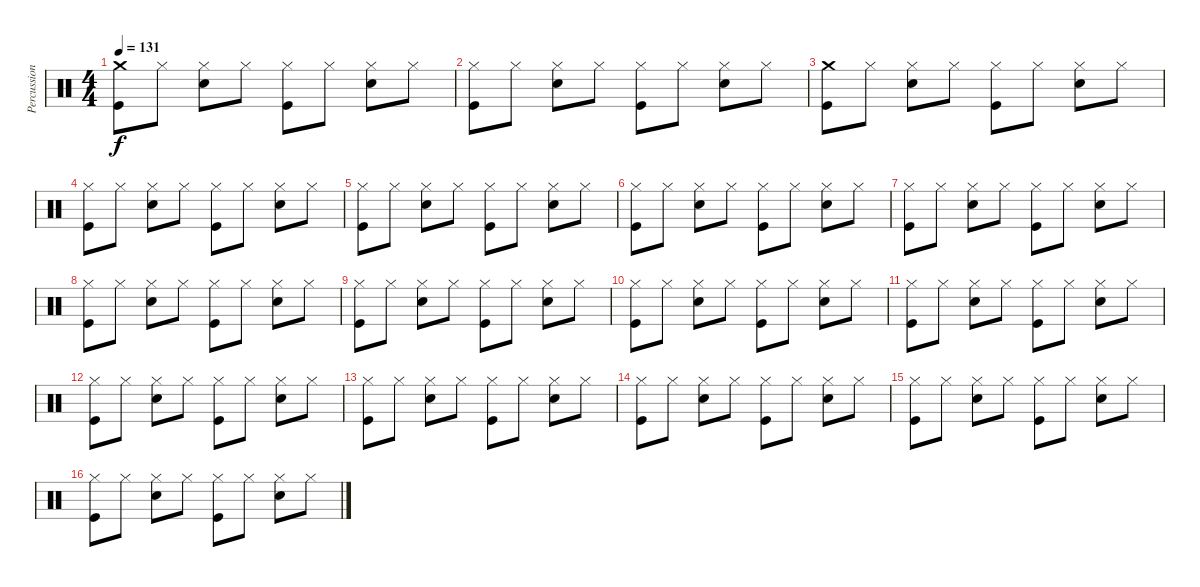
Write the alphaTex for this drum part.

\track ("Percussions" "Percussion") {instrument percussion}
\staff {score}
\articulation defaults
\ts (4 4)
\tempo 131
\clef neutral
\ks c
("Crash medium (hit)" "Kick (hit)").8{dy f} "Hi-Hat (closed)".8 ("Hi-Hat (closed)" "Snare (hit) 2").8 "Hi-Hat (closed)".8 ("Hi-Hat (closed)" "Kick (hit)").8 "Hi-Hat (closed)".8 ("Hi-Hat (closed)" "Snare (hit) 2").8 "Hi-Hat (closed)".8 |
("Hi-Hat (closed)" "Kick (hit)").8 "Hi-Hat (closed)".8 ("Hi-Hat (closed)" "Snare (hit) 2").8 "Hi-Hat (closed)".8 ("Hi-Hat (closed)" "Kick (hit)").8 "Hi-Hat (closed)".8 ("Hi-Hat (closed)" "Snare (hit) 2").8 "Hi-Hat (closed)".8 |
("Crash medium (hit)" "Kick (hit)").8 "Hi-Hat (closed)".8 ("Hi-Hat (closed)" "Snare (hit) 2").8 "Hi-Hat (closed)".8 ("Hi-Hat (closed)" "Kick (hit)").8 "Hi-Hat (closed)".8 ("Hi-Hat (closed)" "Snare (hit) 2").8 "Hi-Hat (closed)".8 |
("Hi-Hat (closed)" "Kick (hit)").8 "Hi-Hat (closed)".8 ("Hi-Hat (closed)" "Snare (hit) 2").8 "Hi-Hat (closed)".8 ("Hi-Hat (closed)" "Kick (hit)").8 "Hi-Hat (closed)".8 ("Hi-Hat (closed)" "Snare (hit) 2").8 "Hi-Hat (closed)".8 |
("Hi-Hat (closed)" "Kick (hit)").8 "Hi-Hat (closed)".8 ("Hi-Hat (closed)" "Snare (hit) 2").8 "Hi-Hat (closed)".8 ("Hi-Hat (closed)" "Kick (hit)").8 "Hi-Hat (closed)".8 ("Hi-Hat (closed)" "Snare (hit) 2").8 "Hi-Hat (closed)".8 |
("Hi-Hat (closed)" "Kick (hit)").8 "Hi-Hat (closed)".8 ("Hi-Hat (closed)" "Snare (hit) 2").8 "Hi-Hat (closed)".8 ("Hi-Hat (closed)" "Kick (hit)").8 "Hi-Hat (closed)".8 ("Hi-Hat (closed)" "Snare (hit) 2").8 "Hi-Hat (closed)".8 |
("Hi-Hat (closed)" "Kick (hit)").8 "Hi-Hat (closed)".8 ("Hi-Hat (closed)" "Snare (hit) 2").8 "Hi-Hat (closed)".8 ("Hi-Hat (closed)" "Kick (hit)").8 "Hi-Hat (closed)".8 ("Hi-Hat (closed)" "Snare (hit) 2").8 "Hi-Hat (closed)".8 |
("Hi-Hat (closed)" "Kick (hit)").8 "Hi-Hat (closed)".8 ("Hi-Hat (closed)" "Snare (hit) 2").8 "Hi-Hat (closed)".8 ("Hi-Hat (closed)" "Kick (hit)").8 "Hi-Hat (closed)".8 ("Hi-Hat (closed)" "Snare (hit) 2").8 "Hi-Hat (closed)".8 |
("Hi-Hat (closed)" "Kick (hit)").8 "Hi-Hat (closed)".8 ("Hi-Hat (closed)" "Snare (hit) 2").8 "Hi-Hat (closed)".8 ("Hi-Hat (closed)" "Kick (hit)").8 "Hi-Hat (closed)".8 ("Hi-Hat (closed)" "Snare (hit) 2").8 "Hi-Hat (closed)".8 |
("Hi-Hat (closed)" "Kick (hit)").8 "Hi-Hat (closed)".8 ("Hi-Hat (closed)" "Snare (hit) 2").8 "Hi-Hat (closed)".8 ("Hi-Hat (closed)" "Kick (hit)").8 "Hi-Hat (closed)".8 ("Hi-Hat (closed)" "Snare (hit) 2").8 "Hi-Hat (closed)".8 |
("Hi-Hat (closed)" "Kick (hit)").8 "Hi-Hat (closed)".8 ("Hi-Hat (closed)" "Snare (hit) 2").8 "Hi-Hat (closed)".8 ("Hi-Hat (closed)" "Kick (hit)").8 "Hi-Hat (closed)".8 ("Hi-Hat (closed)" "Snare (hit) 2").8 "Hi-Hat (closed)".8 |
("Hi-Hat (closed)" "Kick (hit)").8 "Hi-Hat (closed)".8 ("Hi-Hat (closed)" "Snare (hit) 2").8 "Hi-Hat (closed)".8 ("Hi-Hat (closed)" "Kick (hit)").8 "Hi-Hat (closed)".8 ("Hi-Hat (closed)" "Snare (hit) 2").8 "Hi-Hat (closed)".8 |
("Hi-Hat (closed)" "Kick (hit)").8 "Hi-Hat (closed)".8 ("Hi-Hat (closed)" "Snare (hit) 2").8 "Hi-Hat (closed)".8 ("Hi-Hat (closed)" "Kick (hit)").8 "Hi-Hat (closed)".8 ("Hi-Hat (closed)" "Snare (hit) 2").8 "Hi-Hat (closed)".8 |
("Hi-Hat (closed)" "Kick (hit)").8 "Hi-Hat (closed)".8 ("Hi-Hat (closed)" "Snare (hit) 2").8 "Hi-Hat (closed)".8 ("Hi-Hat (closed)" "Kick (hit)").8 "Hi-Hat (closed)".8 ("Hi-Hat (closed)" "Snare (hit) 2").8 "Hi-Hat (closed)".8 |
("Hi-Hat (closed)" "Kick (hit)").8 "Hi-Hat (closed)".8 ("Hi-Hat (closed)" "Snare (hit) 2").8 "Hi-Hat (closed)".8 ("Hi-Hat (closed)" "Kick (hit)").8 "Hi-Hat (closed)".8 ("Hi-Hat (closed)" "Snare (hit) 2").8 "Hi-Hat (closed)".8 |
("Hi-Hat (closed)" "Kick (hit)").8 "Hi-Hat (closed)".8 ("Hi-Hat (closed)" "Snare (hit) 2").8 "Hi-Hat (closed)".8 ("Hi-Hat (closed)" "Kick (hit)").8 "Hi-Hat (closed)".8 ("Hi-Hat (closed)" "Snare (hit) 2").8 "Hi-Hat (closed)".8
